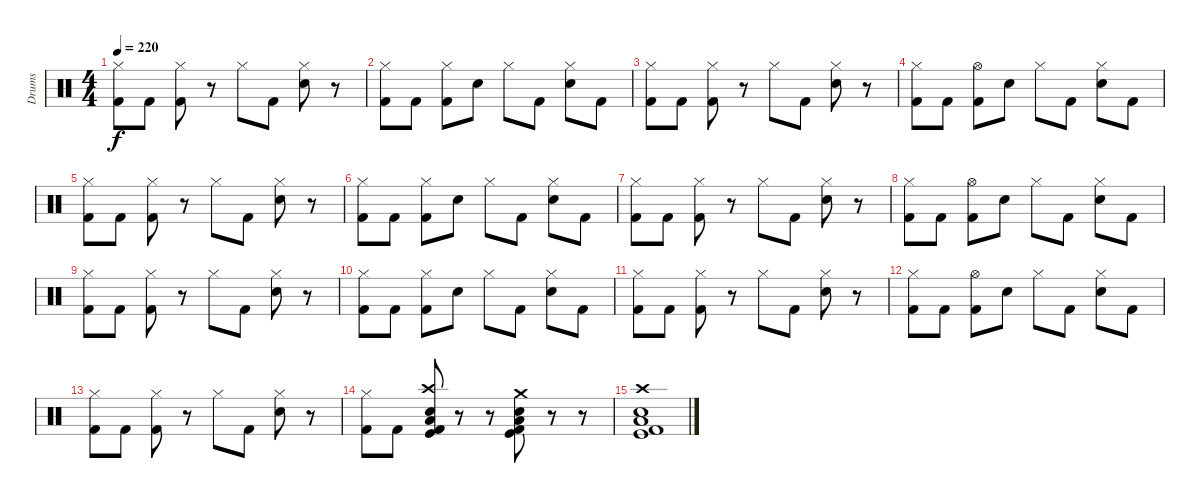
\track ("Drums" "Drums") {instrument percussion}
\staff {score}
\articulation defaults
\ts (4 4)
\tempo 220
\clef neutral
\ks c
("Hi-Hat (closed)" "Kick (hit) 2").8{dy f} "Kick (hit) 2".8 ("Hi-Hat (closed)" "Kick (hit) 2").8 r.8 "Hi-Hat (closed)".8 "Kick (hit) 2".8 ("Hi-Hat (closed)" "Electric Snare (hit)").8 r.8 |
("Hi-Hat (closed)" "Kick (hit) 2").8 "Kick (hit) 2".8 ("Hi-Hat (closed)" "Kick (hit) 2").8 "Electric Snare (hit)".8 "Hi-Hat (closed)".8 "Kick (hit) 2".8 ("Hi-Hat (closed)" "Electric Snare (hit)").8 "Kick (hit) 2".8 |
("Hi-Hat (closed)" "Kick (hit) 2").8 "Kick (hit) 2".8 ("Hi-Hat (closed)" "Kick (hit) 2").8 r.8 "Hi-Hat (closed)".8 "Kick (hit) 2".8 ("Hi-Hat (closed)" "Electric Snare (hit)").8 r.8 |
("Hi-Hat (closed)" "Kick (hit) 2").8 "Kick (hit) 2".8 ("Hi-Hat (open)" "Kick (hit) 2").8 "Electric Snare (hit)".8 "Hi-Hat (closed)".8 "Kick (hit) 2".8 ("Hi-Hat (closed)" "Electric Snare (hit)").8 "Kick (hit) 2".8 |
("Hi-Hat (closed)" "Kick (hit) 2").8 "Kick (hit) 2".8 ("Hi-Hat (closed)" "Kick (hit) 2").8 r.8 "Hi-Hat (closed)".8 "Kick (hit) 2".8 ("Hi-Hat (closed)" "Electric Snare (hit)").8 r.8 |
("Hi-Hat (closed)" "Kick (hit) 2").8 "Kick (hit) 2".8 ("Hi-Hat (closed)" "Kick (hit) 2").8 "Electric Snare (hit)".8 "Hi-Hat (closed)".8 "Kick (hit) 2".8 ("Hi-Hat (closed)" "Electric Snare (hit)").8 "Kick (hit) 2".8 |
("Hi-Hat (closed)" "Kick (hit) 2").8 "Kick (hit) 2".8 ("Hi-Hat (closed)" "Kick (hit) 2").8 r.8 "Hi-Hat (closed)".8 "Kick (hit) 2".8 ("Hi-Hat (closed)" "Electric Snare (hit)").8 r.8 |
("Hi-Hat (closed)" "Kick (hit) 2").8 "Kick (hit) 2".8 ("Hi-Hat (open)" "Kick (hit) 2").8 "Electric Snare (hit)".8 "Hi-Hat (closed)".8 "Kick (hit) 2".8 ("Hi-Hat (closed)" "Electric Snare (hit)").8 "Kick (hit) 2".8 |
("Hi-Hat (closed)" "Kick (hit) 2").8 "Kick (hit) 2".8 ("Hi-Hat (closed)" "Kick (hit) 2").8 r.8 "Hi-Hat (closed)".8 "Kick (hit) 2".8 ("Hi-Hat (closed)" "Electric Snare (hit)").8 r.8 |
("Hi-Hat (closed)" "Kick (hit) 2").8 "Kick (hit) 2".8 ("Hi-Hat (closed)" "Kick (hit) 2").8 "Electric Snare (hit)".8 "Hi-Hat (closed)".8 "Kick (hit) 2".8 ("Hi-Hat (closed)" "Electric Snare (hit)").8 "Kick (hit) 2".8 |
("Hi-Hat (closed)" "Kick (hit) 2").8 "Kick (hit) 2".8 ("Hi-Hat (closed)" "Kick (hit) 2").8 r.8 "Hi-Hat (closed)".8 "Kick (hit) 2".8 ("Hi-Hat (closed)" "Electric Snare (hit)").8 r.8 |
("Hi-Hat (closed)" "Kick (hit) 2").8 "Kick (hit) 2".8 ("Hi-Hat (open)" "Kick (hit) 2").8 "Electric Snare (hit)".8 "Hi-Hat (closed)".8 "Kick (hit) 2".8 ("Hi-Hat (closed)" "Electric Snare (hit)").8 "Kick (hit) 2".8 |
("Hi-Hat (closed)" "Kick (hit) 2").8 "Kick (hit) 2".8 ("Hi-Hat (closed)" "Kick (hit) 2").8 r.8 "Hi-Hat (closed)".8 "Kick (hit) 2".8 ("Hi-Hat (closed)" "Electric Snare (hit)").8 r.8 |
("Hi-Hat (closed)" "Kick (hit) 2").8 "Kick (hit) 2".8 ("Crash high (hit)" "Electric Snare (hit)" "Kick (hit) 2" "Kick (hit)" "Low Floor Tom (hit)").8 r.8 r.8 ("Crash medium (hit)" "Electric Snare (hit)" "Kick (hit) 2" "Kick (hit)" "Low Floor Tom (hit)").8 r.8 r.8 |
("Crash high (hit)" "Electric Snare (hit)" "Kick (hit) 2" "Kick (hit)" "Low Floor Tom (hit)").1
